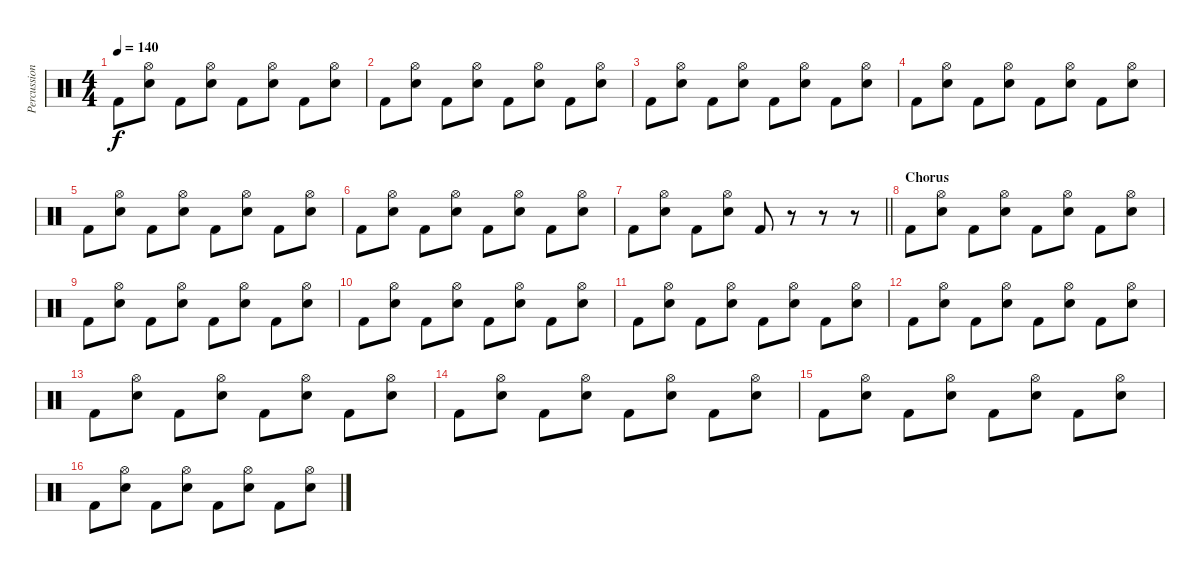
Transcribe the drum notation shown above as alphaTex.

\track ("Percussion" "Percussion") {instrument percussion}
\staff {score}
\articulation defaults
\ts (4 4)
\tempo 140
\clef neutral
\ks c "Kick (hit) 2".8{dy f}
("Hi-Hat (open)" "Hand Clap (hit)").8 "Kick (hit) 2".8 ("Hi-Hat (open)" "Hand Clap (hit)").8 "Kick (hit) 2".8 ("Hi-Hat (open)" "Hand Clap (hit)").8 "Kick (hit) 2".8 ("Hi-Hat (open)" "Hand Clap (hit)").8 |
"Kick (hit) 2".8 ("Hi-Hat (open)" "Hand Clap (hit)").8 "Kick (hit) 2".8 ("Hi-Hat (open)" "Hand Clap (hit)").8 "Kick (hit) 2".8 ("Hi-Hat (open)" "Hand Clap (hit)").8 "Kick (hit) 2".8 ("Hi-Hat (open)" "Hand Clap (hit)").8 |
"Kick (hit) 2".8 ("Hi-Hat (open)" "Hand Clap (hit)").8 "Kick (hit) 2".8 ("Hi-Hat (open)" "Hand Clap (hit)").8 "Kick (hit) 2".8 ("Hi-Hat (open)" "Hand Clap (hit)").8 "Kick (hit) 2".8 ("Hi-Hat (open)" "Hand Clap (hit)").8 |
"Kick (hit) 2".8 ("Hi-Hat (open)" "Hand Clap (hit)").8 "Kick (hit) 2".8 ("Hi-Hat (open)" "Hand Clap (hit)").8 "Kick (hit) 2".8 ("Hi-Hat (open)" "Hand Clap (hit)").8 "Kick (hit) 2".8 ("Hi-Hat (open)" "Hand Clap (hit)").8 |
"Kick (hit) 2".8 ("Hi-Hat (open)" "Hand Clap (hit)").8 "Kick (hit) 2".8 ("Hi-Hat (open)" "Hand Clap (hit)").8 "Kick (hit) 2".8 ("Hi-Hat (open)" "Hand Clap (hit)").8 "Kick (hit) 2".8 ("Hi-Hat (open)" "Hand Clap (hit)").8 |
"Kick (hit) 2".8 ("Hi-Hat (open)" "Hand Clap (hit)").8 "Kick (hit) 2".8 ("Hi-Hat (open)" "Hand Clap (hit)").8 "Kick (hit) 2".8 ("Hi-Hat (open)" "Hand Clap (hit)").8 "Kick (hit) 2".8 ("Hi-Hat (open)" "Hand Clap (hit)").8 |
\barLineRight lightlight "Kick (hit) 2".8
("Hi-Hat (open)" "Hand Clap (hit)").8 "Kick (hit) 2".8 ("Hi-Hat (open)" "Hand Clap (hit)").8 "Kick (hit) 2".8 r.8 r.8 r.8 |
\section ("" "Chorus")
"Kick (hit) 2".8 ("Hi-Hat (open)" "Hand Clap (hit)").8 "Kick (hit) 2".8 ("Hi-Hat (open)" "Hand Clap (hit)").8 "Kick (hit) 2".8 ("Hi-Hat (open)" "Hand Clap (hit)").8 "Kick (hit) 2".8 ("Hi-Hat (open)" "Hand Clap (hit)").8 |
"Kick (hit) 2".8 ("Hi-Hat (open)" "Hand Clap (hit)").8 "Kick (hit) 2".8 ("Hi-Hat (open)" "Hand Clap (hit)").8 "Kick (hit) 2".8 ("Hi-Hat (open)" "Hand Clap (hit)").8 "Kick (hit) 2".8 ("Hi-Hat (open)" "Hand Clap (hit)").8 |
"Kick (hit) 2".8 ("Hi-Hat (open)" "Hand Clap (hit)").8 "Kick (hit) 2".8 ("Hi-Hat (open)" "Hand Clap (hit)").8 "Kick (hit) 2".8 ("Hi-Hat (open)" "Hand Clap (hit)").8 "Kick (hit) 2".8 ("Hi-Hat (open)" "Hand Clap (hit)").8 |
"Kick (hit) 2".8 ("Hi-Hat (open)" "Hand Clap (hit)").8 "Kick (hit) 2".8 ("Hi-Hat (open)" "Hand Clap (hit)").8 "Kick (hit) 2".8 ("Hi-Hat (open)" "Hand Clap (hit)").8 "Kick (hit) 2".8 ("Hi-Hat (open)" "Hand Clap (hit)").8 |
"Kick (hit) 2".8 ("Hi-Hat (open)" "Hand Clap (hit)").8 "Kick (hit) 2".8 ("Hi-Hat (open)" "Hand Clap (hit)").8 "Kick (hit) 2".8 ("Hi-Hat (open)" "Hand Clap (hit)").8 "Kick (hit) 2".8 ("Hi-Hat (open)" "Hand Clap (hit)").8 |
"Kick (hit) 2".8 ("Hi-Hat (open)" "Hand Clap (hit)").8 "Kick (hit) 2".8 ("Hi-Hat (open)" "Hand Clap (hit)").8 "Kick (hit) 2".8 ("Hi-Hat (open)" "Hand Clap (hit)").8 "Kick (hit) 2".8 ("Hi-Hat (open)" "Hand Clap (hit)").8 |
"Kick (hit) 2".8 ("Hi-Hat (open)" "Hand Clap (hit)").8 "Kick (hit) 2".8 ("Hi-Hat (open)" "Hand Clap (hit)").8 "Kick (hit) 2".8 ("Hi-Hat (open)" "Hand Clap (hit)").8 "Kick (hit) 2".8 ("Hi-Hat (open)" "Hand Clap (hit)").8 |
"Kick (hit) 2".8 ("Hi-Hat (open)" "Hand Clap (hit)").8 "Kick (hit) 2".8 ("Hi-Hat (open)" "Hand Clap (hit)").8 "Kick (hit) 2".8 ("Hi-Hat (open)" "Hand Clap (hit)").8 "Kick (hit) 2".8 ("Hi-Hat (open)" "Hand Clap (hit)").8 |
"Kick (hit) 2".8 ("Hi-Hat (open)" "Hand Clap (hit)").8 "Kick (hit) 2".8 ("Hi-Hat (open)" "Hand Clap (hit)").8 "Kick (hit) 2".8 ("Hi-Hat (open)" "Hand Clap (hit)").8 "Kick (hit) 2".8 ("Hi-Hat (open)" "Hand Clap (hit)").8
